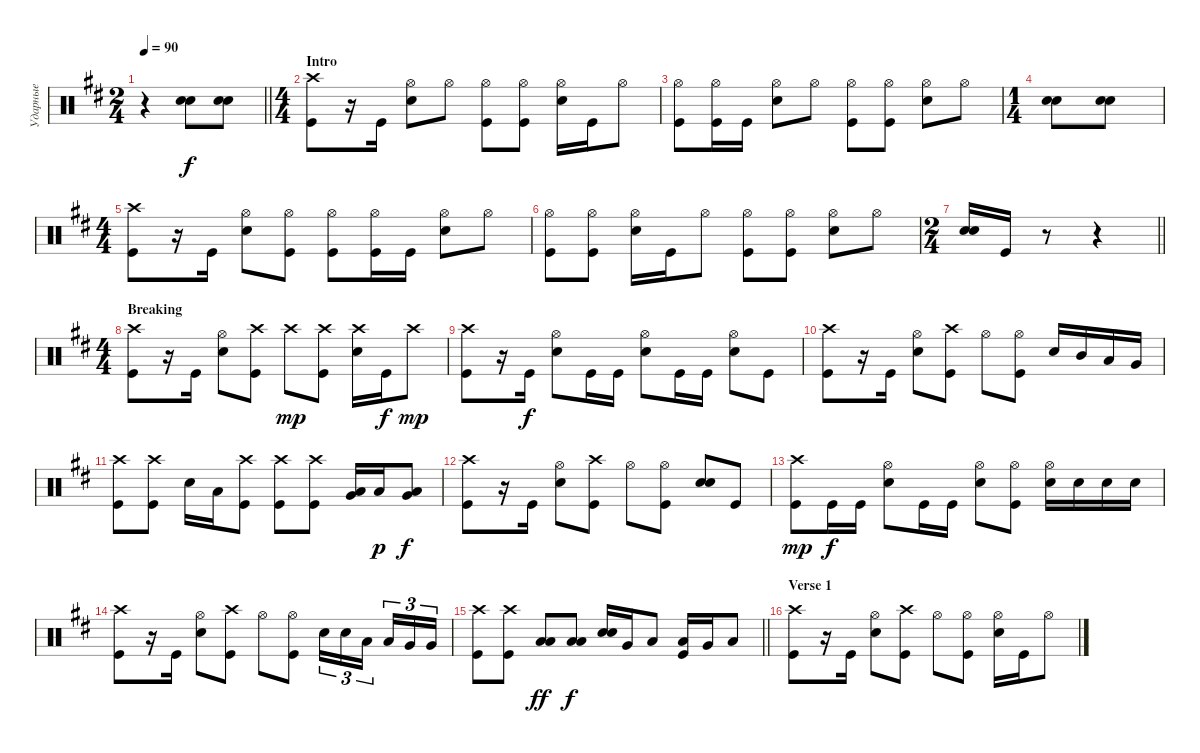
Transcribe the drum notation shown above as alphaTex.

\track ("Ударные" "Ударные") {instrument percussion}
\staff {score}
\articulation defaults
\ts (2 4)
\tempo 90
\clef neutral
\barLineRight lightlight
\ks bminor
r.4{dy f} ("Snare (hit) 2" "Snare (hit) 2").8 ("Snare (hit) 2" "Snare (hit) 2").8{bd 240} |
\ts (4 4)
\section ("" "Intro")
("Kick (hit)" "Crash high (hit)").8 r.16 "Kick (hit)".16 ("Snare (hit) 2" "Hi-Hat (open)").8 "Hi-Hat (open)".8 ("Kick (hit)" "Hi-Hat (open)").8 ("Kick (hit)" "Hi-Hat (open)").8 ("Snare (hit) 2" "Hi-Hat (open)").16 "Kick (hit)".16 "Hi-Hat (open)".8 |
("Kick (hit)" "Hi-Hat (open)").8 ("Kick (hit)" "Hi-Hat (open)").16 "Kick (hit)".16 ("Snare (hit) 2" "Hi-Hat (open)").8 "Hi-Hat (open)".8 ("Kick (hit)" "Hi-Hat (open)").8 ("Kick (hit)" "Hi-Hat (open)").8 ("Snare (hit) 2" "Hi-Hat (open)").8 "Hi-Hat (open)".8 |
\ts (1 4)
("Snare (hit) 2" "Snare (hit) 2").8{bd 240} ("Snare (hit) 2" "Snare (hit) 2").8{bd 240} |
\ts (4 4)
("Kick (hit)" "Crash high (hit)").8 r.16 "Kick (hit)".16 ("Snare (hit) 2" "Hi-Hat (open)").8 ("Hi-Hat (open)" "Kick (hit)").8 ("Kick (hit)" "Hi-Hat (open)").8 ("Kick (hit)" "Hi-Hat (open)").16 "Kick (hit)".16 ("Snare (hit) 2" "Hi-Hat (open)").8 "Hi-Hat (open)".8 |
("Kick (hit)" "Hi-Hat (open)").8 ("Kick (hit)" "Hi-Hat (open)").8 ("Snare (hit) 2" "Hi-Hat (open)").16 "Kick (hit)".16 "Hi-Hat (open)".8 ("Kick (hit)" "Hi-Hat (open)").8 ("Kick (hit)" "Hi-Hat (open)").8 ("Snare (hit) 2" "Hi-Hat (open)").8 "Hi-Hat (open)".8 |
\ts (2 4)
\barLineRight lightlight
("Snare (hit) 2" "Snare (hit) 2").16{bd 240} "Kick (hit)".16 r.8 r.4 |
\ts (4 4)
\section ("" "Breaking")
("Kick (hit)" "Crash high (hit)").8 r.16 "Kick (hit)".16 ("Snare (hit) 2" "Hi-Hat (open)").8 ("Kick (hit)" "Crash high (hit)").8 "Crash high (hit)".8{dy mp} ("Crash high (hit)" "Kick (hit)").8 ("Snare (hit) 2" "Crash high (hit)").16 "Kick (hit)".16{dy f} "Crash high (hit)".8{dy mp} |
("Kick (hit)" "Crash high (hit)").8 r.16 "Kick (hit)".16{dy f} ("Snare (hit) 2" "Hi-Hat (open)").8 "Kick (hit)".16 "Kick (hit)".16 ("Hi-Hat (open)" "Snare (hit) 2").8 "Kick (hit)".16 "Kick (hit)".16 ("Snare (hit) 2" "Hi-Hat (open)").8 "Kick (hit)".8 |
("Kick (hit)" "Crash high (hit)").8 r.16 "Kick (hit)".16 ("Snare (hit) 2" "Hi-Hat (open)").8 ("Kick (hit)" "Crash high (hit)").8 "Hi-Hat (open)".8 ("Hi-Hat (open)" "Kick (hit)").8 "Snare (hit) 2".16 "Mid Tom (hit)".16 "Low Tom (hit)".16 "Very Low Tom (hit)".16 |
("Kick (hit)" "Crash high (hit)").8 ("Kick (hit)" "Crash high (hit)").8 "Snare (hit) 2".16 "Low Tom (hit)".16 ("Kick (hit)" "Crash high (hit)").8 ("Kick (hit)" "Crash high (hit)").8 ("Kick (hit)" "Crash high (hit)").8 ("Very Low Tom (hit)" "Low Floor Tom (hit)").16{bd 240} "Low Floor Tom (hit)".16{dy p} ("Low Floor Tom (hit)" "Very Low Tom (hit)").8{bd 240 dy f} |
("Kick (hit)" "Crash high (hit)").8 r.16 "Kick (hit)".16 ("Snare (hit) 2" "Hi-Hat (open)").8 ("Kick (hit)" "Crash high (hit)").8 "Hi-Hat (open)".8 ("Hi-Hat (open)" "Kick (hit)").8 ("Snare (hit) 2" "Snare (hit) 2").8{bd 240} "Kick (hit)".8 |
("Kick (hit)" "Crash high (hit)").8{dy mp} "Kick (hit)".16{dy f} "Kick (hit)".16 ("Snare (hit) 2" "Hi-Hat (open)").8 "Kick (hit)".16 "Kick (hit)".16 ("Hi-Hat (open)" "Snare (hit) 2").8 ("Kick (hit)" "Hi-Hat (open)").8 ("Hi-Hat (open)" "Snare (hit) 2").16 "Snare (hit) 2".16 "Snare (hit) 2".16 "Snare (hit) 2".16 |
("Kick (hit)" "Crash high (hit)").8 r.16 "Kick (hit)".16 ("Snare (hit) 2" "Hi-Hat (open)").8 ("Kick (hit)" "Crash high (hit)").8 "Hi-Hat (open)".8 ("Hi-Hat (open)" "Kick (hit)").8 "Snare (hit) 2".16{tu (3 2)} "Snare (hit) 2".16{tu (3 2)} "Low Tom (hit)".16{tu (3 2) beam splitsecondary} "Low Tom (hit)".16{tu (3 2)} "Very Low Tom (hit)".16{tu (3 2)} "Very Low Tom (hit)".16{tu (3 2)} |
\barLineRight lightlight
("Kick (hit)" "Crash high (hit)").8 ("Kick (hit)" "Crash high (hit)").8 ("Low Tom (hit)" "Low Tom (hit)").8{bd 240 dy ff} ("Low Floor Tom (hit)" "Low Floor Tom (hit)").8{bd 240 dy f} ("Snare (hit) 2" "Snare (hit) 2").16{bd 240} "Very Low Tom (hit)".16 "Low Floor Tom (hit)".8 ("Kick (hit)" "Low Floor Tom (hit)").16 "Very Low Tom (hit)".16 "Low Floor Tom (hit)".8 |
\section ("" "Verse 1")
("Kick (hit)" "Crash high (hit)").8 r.16 "Kick (hit)".16 ("Snare (hit) 2" "Hi-Hat (open)").8 ("Kick (hit)" "Crash high (hit)").8 "Hi-Hat (open)".8 ("Hi-Hat (open)" "Kick (hit)").8 ("Hi-Hat (open)" "Snare (hit) 2").16 "Kick (hit)".16 "Hi-Hat (open)".8
